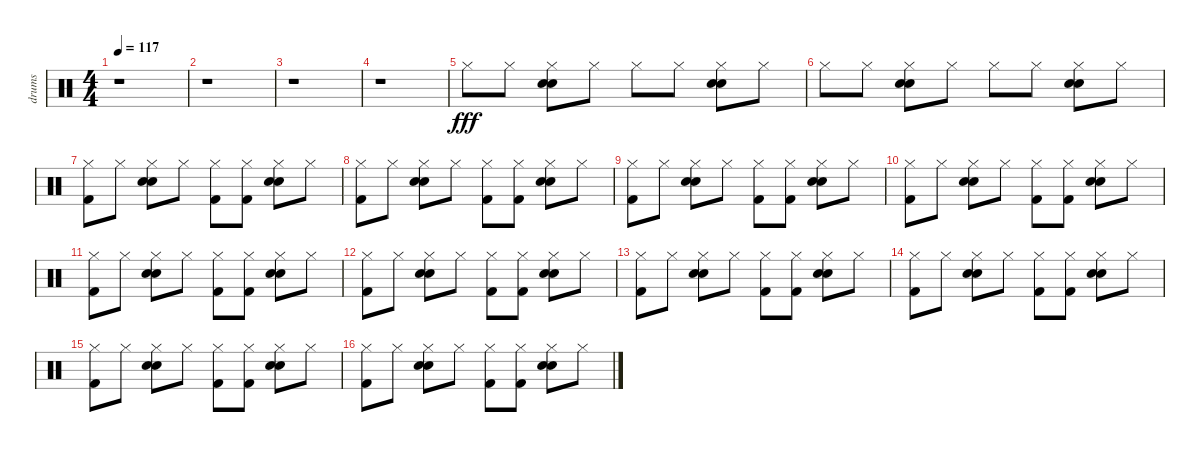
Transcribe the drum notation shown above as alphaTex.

\track ("drums" "drums") {instrument percussion}
\staff {score}
\articulation defaults
\ts (4 4)
\tempo 117
\clef neutral
\ks c
r.1{dy fff} |
r.1 |
r.1 |
r.1 |
"Hi-Hat (closed)".8 "Hi-Hat (closed)".8 ("Hi-Hat (closed)" "Electric Snare (hit)" "Electric Snare (hit)").8 "Hi-Hat (closed)".8 "Hi-Hat (closed)".8 "Hi-Hat (closed)".8 ("Hi-Hat (closed)" "Electric Snare (hit)" "Electric Snare (hit)").8 "Hi-Hat (closed)".8 |
"Hi-Hat (closed)".8 "Hi-Hat (closed)".8 ("Hi-Hat (closed)" "Electric Snare (hit)" "Electric Snare (hit)").8 "Hi-Hat (closed)".8 "Hi-Hat (closed)".8 "Hi-Hat (closed)".8 ("Hi-Hat (closed)" "Electric Snare (hit)" "Electric Snare (hit)").8 "Hi-Hat (closed)".8 |
("Kick (hit) 2" "Hi-Hat (closed)").8 "Hi-Hat (closed)".8 ("Hi-Hat (closed)" "Electric Snare (hit)" "Electric Snare (hit)").8 "Hi-Hat (closed)".8 ("Kick (hit) 2" "Hi-Hat (closed)").8 ("Kick (hit) 2" "Hi-Hat (closed)").8 ("Hi-Hat (closed)" "Electric Snare (hit)" "Electric Snare (hit)").8 "Hi-Hat (closed)".8 |
("Kick (hit) 2" "Hi-Hat (closed)").8 "Hi-Hat (closed)".8 ("Hi-Hat (closed)" "Electric Snare (hit)" "Electric Snare (hit)").8 "Hi-Hat (closed)".8 ("Kick (hit) 2" "Hi-Hat (closed)").8 ("Kick (hit) 2" "Hi-Hat (closed)").8 ("Hi-Hat (closed)" "Electric Snare (hit)" "Electric Snare (hit)").8 "Hi-Hat (closed)".8 |
("Kick (hit) 2" "Hi-Hat (closed)").8 "Hi-Hat (closed)".8 ("Hi-Hat (closed)" "Electric Snare (hit)" "Electric Snare (hit)").8 "Hi-Hat (closed)".8 ("Kick (hit) 2" "Hi-Hat (closed)").8 ("Kick (hit) 2" "Hi-Hat (closed)").8 ("Hi-Hat (closed)" "Electric Snare (hit)" "Electric Snare (hit)").8 "Hi-Hat (closed)".8 |
("Kick (hit) 2" "Hi-Hat (closed)").8 "Hi-Hat (closed)".8 ("Hi-Hat (closed)" "Electric Snare (hit)" "Electric Snare (hit)").8 "Hi-Hat (closed)".8 ("Kick (hit) 2" "Hi-Hat (closed)").8 ("Kick (hit) 2" "Hi-Hat (closed)").8 ("Hi-Hat (closed)" "Electric Snare (hit)" "Electric Snare (hit)").8 "Hi-Hat (closed)".8 |
("Kick (hit) 2" "Hi-Hat (closed)").8 "Hi-Hat (closed)".8 ("Hi-Hat (closed)" "Electric Snare (hit)" "Electric Snare (hit)").8 "Hi-Hat (closed)".8 ("Kick (hit) 2" "Hi-Hat (closed)").8 ("Kick (hit) 2" "Hi-Hat (closed)").8 ("Hi-Hat (closed)" "Electric Snare (hit)" "Electric Snare (hit)").8 "Hi-Hat (closed)".8 |
("Kick (hit) 2" "Hi-Hat (closed)").8 "Hi-Hat (closed)".8 ("Hi-Hat (closed)" "Electric Snare (hit)" "Electric Snare (hit)").8 "Hi-Hat (closed)".8 ("Kick (hit) 2" "Hi-Hat (closed)").8 ("Kick (hit) 2" "Hi-Hat (closed)").8 ("Hi-Hat (closed)" "Electric Snare (hit)" "Electric Snare (hit)").8 "Hi-Hat (closed)".8 |
("Kick (hit) 2" "Hi-Hat (closed)").8 "Hi-Hat (closed)".8 ("Hi-Hat (closed)" "Electric Snare (hit)" "Electric Snare (hit)").8 "Hi-Hat (closed)".8 ("Kick (hit) 2" "Hi-Hat (closed)").8 ("Kick (hit) 2" "Hi-Hat (closed)").8 ("Hi-Hat (closed)" "Electric Snare (hit)" "Electric Snare (hit)").8 "Hi-Hat (closed)".8 |
("Kick (hit) 2" "Hi-Hat (closed)").8 "Hi-Hat (closed)".8 ("Hi-Hat (closed)" "Electric Snare (hit)" "Electric Snare (hit)").8 "Hi-Hat (closed)".8 ("Kick (hit) 2" "Hi-Hat (closed)").8 ("Kick (hit) 2" "Hi-Hat (closed)").8 ("Hi-Hat (closed)" "Electric Snare (hit)" "Electric Snare (hit)").8 "Hi-Hat (closed)".8 |
("Kick (hit) 2" "Hi-Hat (closed)").8 "Hi-Hat (closed)".8 ("Hi-Hat (closed)" "Electric Snare (hit)" "Electric Snare (hit)").8 "Hi-Hat (closed)".8 ("Kick (hit) 2" "Hi-Hat (closed)").8 ("Kick (hit) 2" "Hi-Hat (closed)").8 ("Hi-Hat (closed)" "Electric Snare (hit)" "Electric Snare (hit)").8 "Hi-Hat (closed)".8 |
("Kick (hit) 2" "Hi-Hat (closed)").8 "Hi-Hat (closed)".8 ("Hi-Hat (closed)" "Electric Snare (hit)" "Electric Snare (hit)").8 "Hi-Hat (closed)".8 ("Kick (hit) 2" "Hi-Hat (closed)").8 ("Kick (hit) 2" "Hi-Hat (closed)").8 ("Hi-Hat (closed)" "Electric Snare (hit)" "Electric Snare (hit)").8 "Hi-Hat (closed)".8
